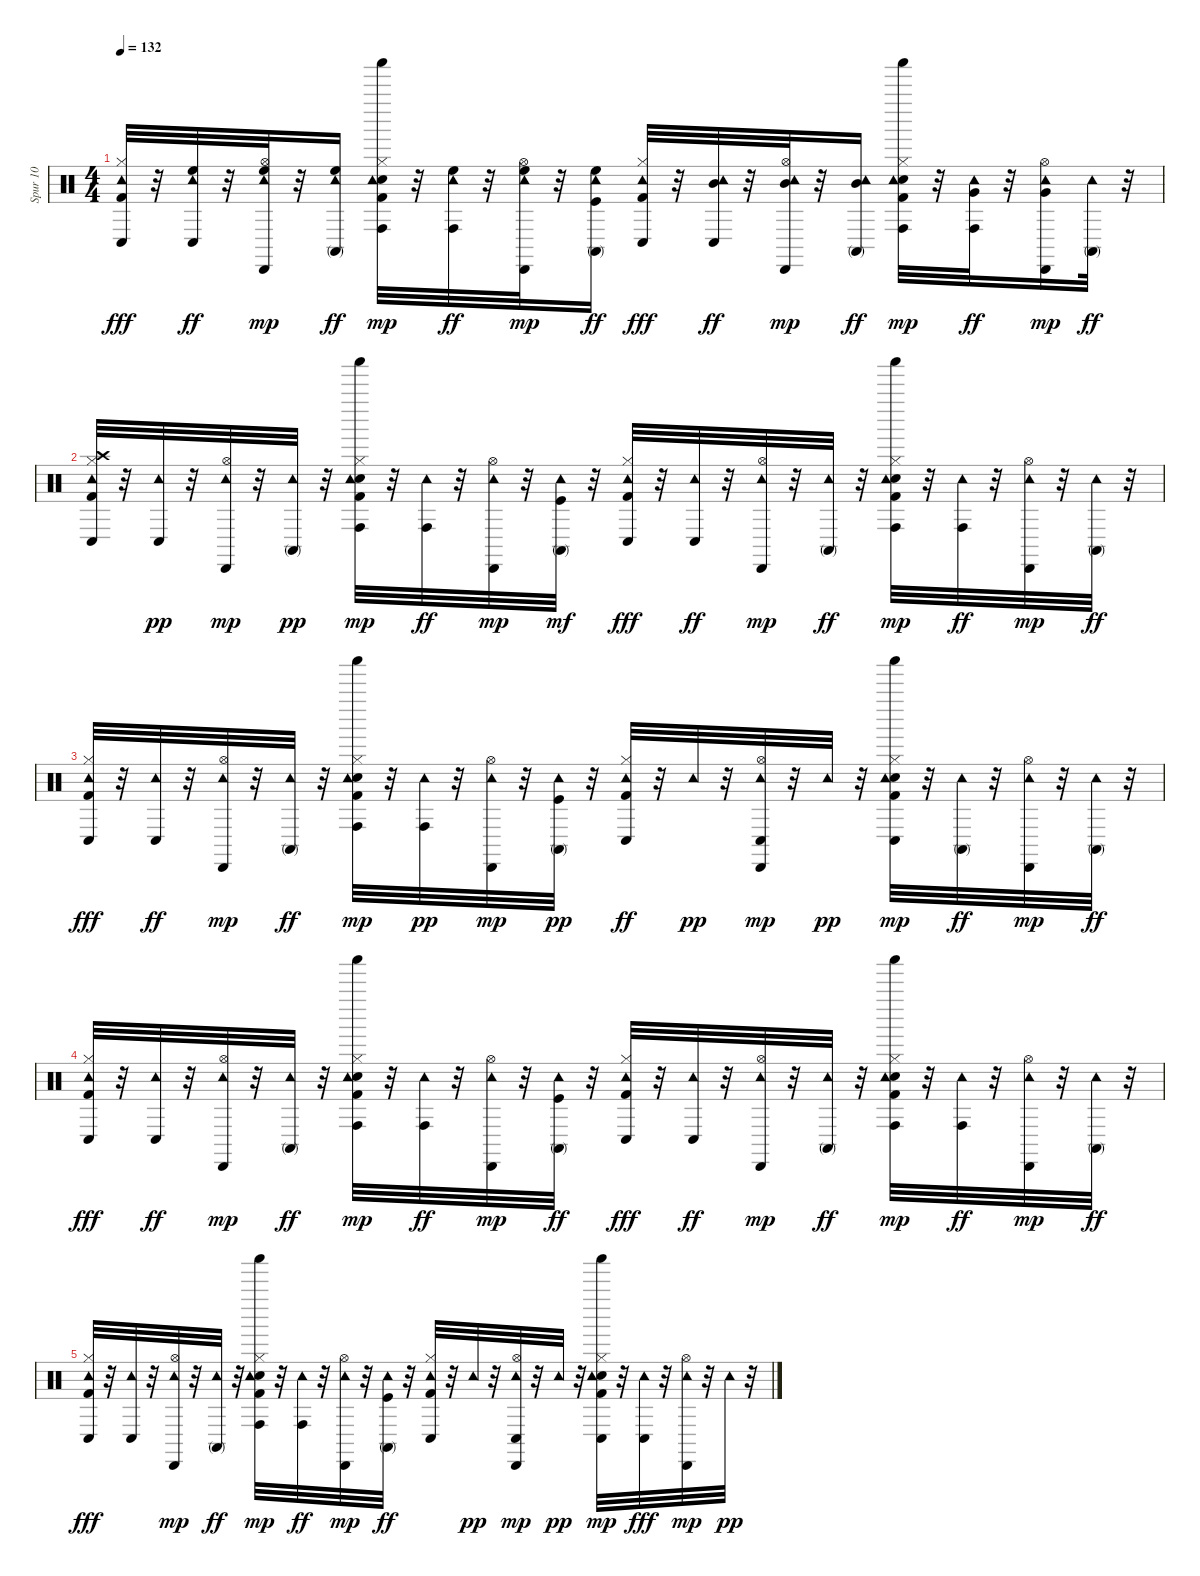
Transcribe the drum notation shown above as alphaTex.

\track ("Spur 10" "Spur 10") {instrument percussion}
\staff {score}
\articulation defaults
\ts (4 4)
\tempo 132
\clef neutral
\ks c
("Kick (hit) 2" "Hi-Hat (closed)" "Tambourine (hit)" "Conga low (hit)").32{dy fff} r.32 ("High Floor Tom (hit)" "Tambourine (hit)" "Conga low (hit)").32{dy ff} r.32 ("Hi-Hat (open)" "High Floor Tom (hit)" "Tambourine (hit)" "Cabasa (hit)").32{dy mp} r.32 ("High Floor Tom (hit)" "Tambourine (hit)" "Conga high (mute)").16{dy ff} ("Snare (hit) 2" "Kick (hit) 2" "Hi-Hat (closed)" "Tambourine (hit)" "Conga high (hit)" "Shaker (hit)").32{dy mp} r.32 ("High Floor Tom (hit)" "Tambourine (hit)" "Conga high (hit)").32{dy ff} r.32 ("Hi-Hat (open)" "High Floor Tom (hit)" "Tambourine (hit)" "Cabasa (hit)").32{dy mp} r.32 ("Kick (hit)" "High Floor Tom (hit)" "Tambourine (hit)" "Conga high (mute)").16{dy ff} ("Kick (hit) 2" "Hi-Hat (closed)" "Tambourine (hit)" "Conga low (hit)").32{dy fff} r.32 ("Mid Tom (hit)" "Tambourine (hit)" "Conga low (hit)").32{dy ff} r.32 ("Hi-Hat (open)" "Mid Tom (hit)" "Tambourine (hit)" "Cabasa (hit)").32{dy mp} r.32 ("Mid Tom (hit)" "Tambourine (hit)" "Conga high (mute)").16{dy ff} ("Snare (hit) 2" "Kick (hit) 2" "Hi-Hat (closed)" "Tambourine (hit)" "Conga high (hit)" "Shaker (hit)").32{dy mp} r.32 ("Very Low Tom (hit)" "Tambourine (hit)" "Conga high (hit)").32{dy ff} r.32 ("Hi-Hat (open)" "Very Low Tom (hit)" "Tambourine (hit)" "Cabasa (hit)").16{dy mp} ("Tambourine (hit)" "Conga high (mute)").32{dy ff} r.32 |
("Kick (hit) 2" "Hi-Hat (closed)" "Crash high (hit)" "Tambourine (hit)" "Conga low (hit)").32 r.32 ("Tambourine (hit)" "Conga low (hit)").32{dy pp} r.32 ("Hi-Hat (open)" "Tambourine (hit)" "Cabasa (hit)").32{dy mp} r.32 ("Tambourine (hit)" "Conga high (mute)").32{dy pp} r.32 ("Snare (hit) 2" "Kick (hit) 2" "Hi-Hat (closed)" "Tambourine (hit)" "Conga high (hit)" "Shaker (hit)").32{dy mp} r.32 ("Tambourine (hit)" "Conga high (hit)").32{dy ff} r.32 ("Hi-Hat (open)" "Tambourine (hit)" "Cabasa (hit)").32{dy mp} r.32 ("Kick (hit)" "Tambourine (hit)" "Conga high (mute)").32{dy mf} r.32 ("Kick (hit) 2" "Hi-Hat (closed)" "Tambourine (hit)" "Conga low (hit)").32{dy fff} r.32 ("Tambourine (hit)" "Conga low (hit)").32{dy ff} r.32 ("Hi-Hat (open)" "Tambourine (hit)" "Cabasa (hit)").32{dy mp} r.32 ("Tambourine (hit)" "Conga high (mute)").32{dy ff} r.32 ("Snare (hit) 2" "Kick (hit) 2" "Hi-Hat (closed)" "Tambourine (hit)" "Conga high (hit)" "Shaker (hit)").32{dy mp} r.32 ("Tambourine (hit)" "Conga high (hit)").32{dy ff} r.32 ("Hi-Hat (open)" "Tambourine (hit)" "Cabasa (hit)").32{dy mp} r.32 ("Tambourine (hit)" "Conga high (mute)").32{dy ff} r.32 |
("Kick (hit) 2" "Hi-Hat (closed)" "Tambourine (hit)" "Conga low (hit)").32{dy fff} r.32 ("Tambourine (hit)" "Conga low (hit)").32{dy ff} r.32 ("Hi-Hat (open)" "Tambourine (hit)" "Cabasa (hit)").32{dy mp} r.32 ("Tambourine (hit)" "Conga high (mute)").32{dy ff} r.32 ("Snare (hit) 2" "Kick (hit) 2" "Hi-Hat (closed)" "Tambourine (hit)" "Conga high (hit)" "Shaker (hit)").32{dy mp} r.32 ("Tambourine (hit)" "Conga high (hit)").32{dy pp} r.32 ("Hi-Hat (open)" "Tambourine (hit)" "Cabasa (hit)").32{dy mp} r.32 ("Kick (hit)" "Tambourine (hit)" "Conga high (mute)").32{dy pp} r.32 ("Kick (hit) 2" "Hi-Hat (closed)" "Tambourine (hit)" "Conga low (hit)").32{dy ff} r.32 "Tambourine (hit)".32{dy pp} r.32 ("Hi-Hat (open)" "Tambourine (hit)" "Conga low (hit)" "Cabasa (hit)").32{dy mp} r.32 "Tambourine (hit)".32{dy pp} r.32 ("Snare (hit) 2" "Kick (hit) 2" "Hi-Hat (closed)" "Tambourine (hit)" "Conga low (hit)" "Shaker (hit)").32{dy mp} r.32 ("Tambourine (hit)" "Conga high (mute)").32{dy ff} r.32 ("Hi-Hat (open)" "Tambourine (hit)" "Cabasa (hit)").32{dy mp} r.32 ("Tambourine (hit)" "Conga high (mute)").32{dy ff} r.32 |
("Kick (hit) 2" "Hi-Hat (closed)" "Tambourine (hit)" "Conga low (hit)").32{dy fff} r.32 ("Tambourine (hit)" "Conga low (hit)").32{dy ff} r.32 ("Hi-Hat (open)" "Tambourine (hit)" "Cabasa (hit)").32{dy mp} r.32 ("Tambourine (hit)" "Conga high (mute)").32{dy ff} r.32 ("Snare (hit) 2" "Kick (hit) 2" "Hi-Hat (closed)" "Tambourine (hit)" "Conga high (hit)" "Shaker (hit)").32{dy mp} r.32 ("Tambourine (hit)" "Conga high (hit)").32{dy ff} r.32 ("Hi-Hat (open)" "Tambourine (hit)" "Cabasa (hit)").32{dy mp} r.32 ("Kick (hit)" "Tambourine (hit)" "Conga high (mute)").32{dy ff} r.32 ("Kick (hit) 2" "Hi-Hat (closed)" "Tambourine (hit)" "Conga low (hit)").32{dy fff} r.32 ("Tambourine (hit)" "Conga low (hit)").32{dy ff} r.32 ("Hi-Hat (open)" "Tambourine (hit)" "Cabasa (hit)").32{dy mp} r.32 ("Tambourine (hit)" "Conga high (mute)").32{dy ff} r.32 ("Snare (hit) 2" "Kick (hit) 2" "Hi-Hat (closed)" "Tambourine (hit)" "Conga high (hit)" "Shaker (hit)").32{dy mp} r.32 ("Tambourine (hit)" "Conga high (hit)").32{dy ff} r.32 ("Hi-Hat (open)" "Tambourine (hit)" "Cabasa (hit)").32{dy mp} r.32 ("Tambourine (hit)" "Conga high (mute)").32{dy ff} r.32 |
("Kick (hit) 2" "Hi-Hat (closed)" "Tambourine (hit)" "Conga low (hit)").32{dy fff} r.32 ("Tambourine (hit)" "Conga low (hit)").32 r.32 ("Hi-Hat (open)" "Tambourine (hit)" "Cabasa (hit)").32{dy mp} r.32 ("Tambourine (hit)" "Conga high (mute)").32{dy ff} r.32 ("Snare (hit) 2" "Kick (hit) 2" "Hi-Hat (closed)" "Tambourine (hit)" "Conga high (hit)" "Shaker (hit)").32{dy mp} r.32 ("Tambourine (hit)" "Conga high (hit)").32{dy ff} r.32 ("Hi-Hat (open)" "Tambourine (hit)" "Cabasa (hit)").32{dy mp} r.32 ("Kick (hit)" "Tambourine (hit)" "Conga high (mute)").32{dy ff} r.32 ("Kick (hit) 2" "Hi-Hat (closed)" "Tambourine (hit)" "Conga low (hit)").32 r.32 "Tambourine (hit)".32{dy pp} r.32 ("Hi-Hat (open)" "Tambourine (hit)" "Conga low (hit)" "Cabasa (hit)").32{dy mp} r.32 "Tambourine (hit)".32{dy pp} r.32 ("Snare (hit) 2" "Kick (hit) 2" "Hi-Hat (closed)" "Tambourine (hit)" "Conga low (hit)" "Shaker (hit)").32{dy mp} r.32 ("Tambourine (hit)" "Conga low (hit)").32{dy fff} r.32 ("Hi-Hat (open)" "Tambourine (hit)" "Cabasa (hit)").32{dy mp} r.32 "Tambourine (hit)".32{dy pp} r.32
